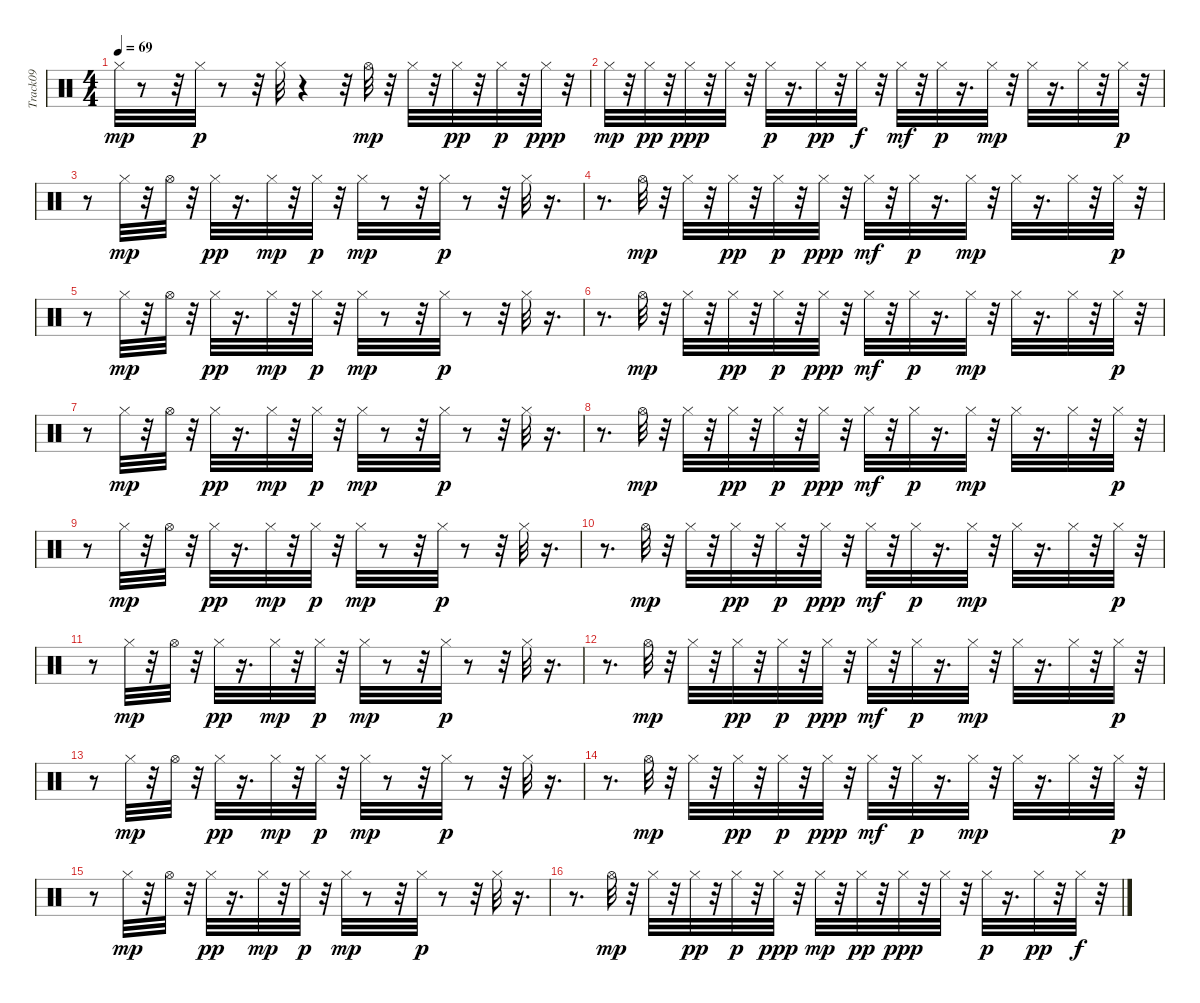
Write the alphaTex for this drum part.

\track ("Track09" "Track09") {instrument percussion}
\staff {score}
\articulation defaults
\ts (4 4)
\tempo 69
\clef neutral
\ks c "Hi-Hat (closed)".32{dy mp}
r.8 r.32 "Hi-Hat (closed)".32{dy p} r.8 r.32 "Hi-Hat (closed)".32 r.4 r.32 "Hi-Hat (open)".32{dy mp} r.32 "Hi-Hat (closed)".32 r.32 "Hi-Hat (closed)".32{dy pp} r.32 "Hi-Hat (closed)".32{dy p} r.32 "Hi-Hat (closed)".32{dy ppp} r.32 |
"Hi-Hat (closed)".32{dy mp} r.32 "Hi-Hat (closed)".32{dy pp} r.32 "Hi-Hat (closed)".32{dy ppp} r.32 "Hi-Hat (closed)".32 r.32 "Hi-Hat (closed)".32{dy p} r.16{d} "Hi-Hat (closed)".32{dy pp} r.32 "Hi-Hat (closed)".32{dy f} r.32 "Hi-Hat (closed)".32{dy mf} r.32 "Hi-Hat (closed)".32{dy p} r.16{d} "Hi-Hat (closed)".32{dy mp} r.32 "Hi-Hat (closed)".32 r.16{d} "Hi-Hat (closed)".32 r.32 "Hi-Hat (closed)".32{dy p} r.32 |
r.8 "Hi-Hat (closed)".32{dy mp} r.32 "Hi-Hat (open)".32 r.32 "Hi-Hat (closed)".32{dy pp} r.16{d} "Hi-Hat (closed)".32{dy mp} r.32 "Hi-Hat (closed)".32{dy p} r.32 "Hi-Hat (closed)".32{dy mp} r.8 r.32 "Hi-Hat (closed)".32{dy p} r.8 r.32 "Hi-Hat (closed)".32 r.16{d} |
r.8{d} "Hi-Hat (open)".32{dy mp} r.32 "Hi-Hat (closed)".32 r.32 "Hi-Hat (closed)".32{dy pp} r.32 "Hi-Hat (closed)".32{dy p} r.32 "Hi-Hat (closed)".32{dy ppp} r.32 "Hi-Hat (closed)".32{dy mf} r.32 "Hi-Hat (closed)".32{dy p} r.16{d} "Hi-Hat (closed)".32{dy mp} r.32 "Hi-Hat (closed)".32 r.16{d} "Hi-Hat (closed)".32 r.32 "Hi-Hat (closed)".32{dy p} r.32 |
r.8 "Hi-Hat (closed)".32{dy mp} r.32 "Hi-Hat (open)".32 r.32 "Hi-Hat (closed)".32{dy pp} r.16{d} "Hi-Hat (closed)".32{dy mp} r.32 "Hi-Hat (closed)".32{dy p} r.32 "Hi-Hat (closed)".32{dy mp} r.8 r.32 "Hi-Hat (closed)".32{dy p} r.8 r.32 "Hi-Hat (closed)".32 r.16{d} |
r.8{d} "Hi-Hat (open)".32{dy mp} r.32 "Hi-Hat (closed)".32 r.32 "Hi-Hat (closed)".32{dy pp} r.32 "Hi-Hat (closed)".32{dy p} r.32 "Hi-Hat (closed)".32{dy ppp} r.32 "Hi-Hat (closed)".32{dy mf} r.32 "Hi-Hat (closed)".32{dy p} r.16{d} "Hi-Hat (closed)".32{dy mp} r.32 "Hi-Hat (closed)".32 r.16{d} "Hi-Hat (closed)".32 r.32 "Hi-Hat (closed)".32{dy p} r.32 |
r.8 "Hi-Hat (closed)".32{dy mp} r.32 "Hi-Hat (open)".32 r.32 "Hi-Hat (closed)".32{dy pp} r.16{d} "Hi-Hat (closed)".32{dy mp} r.32 "Hi-Hat (closed)".32{dy p} r.32 "Hi-Hat (closed)".32{dy mp} r.8 r.32 "Hi-Hat (closed)".32{dy p} r.8 r.32 "Hi-Hat (closed)".32 r.16{d} |
r.8{d} "Hi-Hat (open)".32{dy mp} r.32 "Hi-Hat (closed)".32 r.32 "Hi-Hat (closed)".32{dy pp} r.32 "Hi-Hat (closed)".32{dy p} r.32 "Hi-Hat (closed)".32{dy ppp} r.32 "Hi-Hat (closed)".32{dy mf} r.32 "Hi-Hat (closed)".32{dy p} r.16{d} "Hi-Hat (closed)".32{dy mp} r.32 "Hi-Hat (closed)".32 r.16{d} "Hi-Hat (closed)".32 r.32 "Hi-Hat (closed)".32{dy p} r.32 |
r.8 "Hi-Hat (closed)".32{dy mp} r.32 "Hi-Hat (open)".32 r.32 "Hi-Hat (closed)".32{dy pp} r.16{d} "Hi-Hat (closed)".32{dy mp} r.32 "Hi-Hat (closed)".32{dy p} r.32 "Hi-Hat (closed)".32{dy mp} r.8 r.32 "Hi-Hat (closed)".32{dy p} r.8 r.32 "Hi-Hat (closed)".32 r.16{d} |
r.8{d} "Hi-Hat (open)".32{dy mp} r.32 "Hi-Hat (closed)".32 r.32 "Hi-Hat (closed)".32{dy pp} r.32 "Hi-Hat (closed)".32{dy p} r.32 "Hi-Hat (closed)".32{dy ppp} r.32 "Hi-Hat (closed)".32{dy mf} r.32 "Hi-Hat (closed)".32{dy p} r.16{d} "Hi-Hat (closed)".32{dy mp} r.32 "Hi-Hat (closed)".32 r.16{d} "Hi-Hat (closed)".32 r.32 "Hi-Hat (closed)".32{dy p} r.32 |
r.8 "Hi-Hat (closed)".32{dy mp} r.32 "Hi-Hat (open)".32 r.32 "Hi-Hat (closed)".32{dy pp} r.16{d} "Hi-Hat (closed)".32{dy mp} r.32 "Hi-Hat (closed)".32{dy p} r.32 "Hi-Hat (closed)".32{dy mp} r.8 r.32 "Hi-Hat (closed)".32{dy p} r.8 r.32 "Hi-Hat (closed)".32 r.16{d} |
r.8{d} "Hi-Hat (open)".32{dy mp} r.32 "Hi-Hat (closed)".32 r.32 "Hi-Hat (closed)".32{dy pp} r.32 "Hi-Hat (closed)".32{dy p} r.32 "Hi-Hat (closed)".32{dy ppp} r.32 "Hi-Hat (closed)".32{dy mf} r.32 "Hi-Hat (closed)".32{dy p} r.16{d} "Hi-Hat (closed)".32{dy mp} r.32 "Hi-Hat (closed)".32 r.16{d} "Hi-Hat (closed)".32 r.32 "Hi-Hat (closed)".32{dy p} r.32 |
r.8 "Hi-Hat (closed)".32{dy mp} r.32 "Hi-Hat (open)".32 r.32 "Hi-Hat (closed)".32{dy pp} r.16{d} "Hi-Hat (closed)".32{dy mp} r.32 "Hi-Hat (closed)".32{dy p} r.32 "Hi-Hat (closed)".32{dy mp} r.8 r.32 "Hi-Hat (closed)".32{dy p} r.8 r.32 "Hi-Hat (closed)".32 r.16{d} |
r.8{d} "Hi-Hat (open)".32{dy mp} r.32 "Hi-Hat (closed)".32 r.32 "Hi-Hat (closed)".32{dy pp} r.32 "Hi-Hat (closed)".32{dy p} r.32 "Hi-Hat (closed)".32{dy ppp} r.32 "Hi-Hat (closed)".32{dy mf} r.32 "Hi-Hat (closed)".32{dy p} r.16{d} "Hi-Hat (closed)".32{dy mp} r.32 "Hi-Hat (closed)".32 r.16{d} "Hi-Hat (closed)".32 r.32 "Hi-Hat (closed)".32{dy p} r.32 |
r.8 "Hi-Hat (closed)".32{dy mp} r.32 "Hi-Hat (open)".32 r.32 "Hi-Hat (closed)".32{dy pp} r.16{d} "Hi-Hat (closed)".32{dy mp} r.32 "Hi-Hat (closed)".32{dy p} r.32 "Hi-Hat (closed)".32{dy mp} r.8 r.32 "Hi-Hat (closed)".32{dy p} r.8 r.32 "Hi-Hat (closed)".32 r.16{d} |
r.8{d} "Hi-Hat (open)".32{dy mp} r.32 "Hi-Hat (closed)".32 r.32 "Hi-Hat (closed)".32{dy pp} r.32 "Hi-Hat (closed)".32{dy p} r.32 "Hi-Hat (closed)".32{dy ppp} r.32 "Hi-Hat (closed)".32{dy mp} r.32 "Hi-Hat (closed)".32{dy pp} r.32 "Hi-Hat (closed)".32{dy ppp} r.32 "Hi-Hat (closed)".32 r.32 "Hi-Hat (closed)".32{dy p} r.16{d} "Hi-Hat (closed)".32{dy pp} r.32 "Hi-Hat (closed)".32{dy f} r.32
